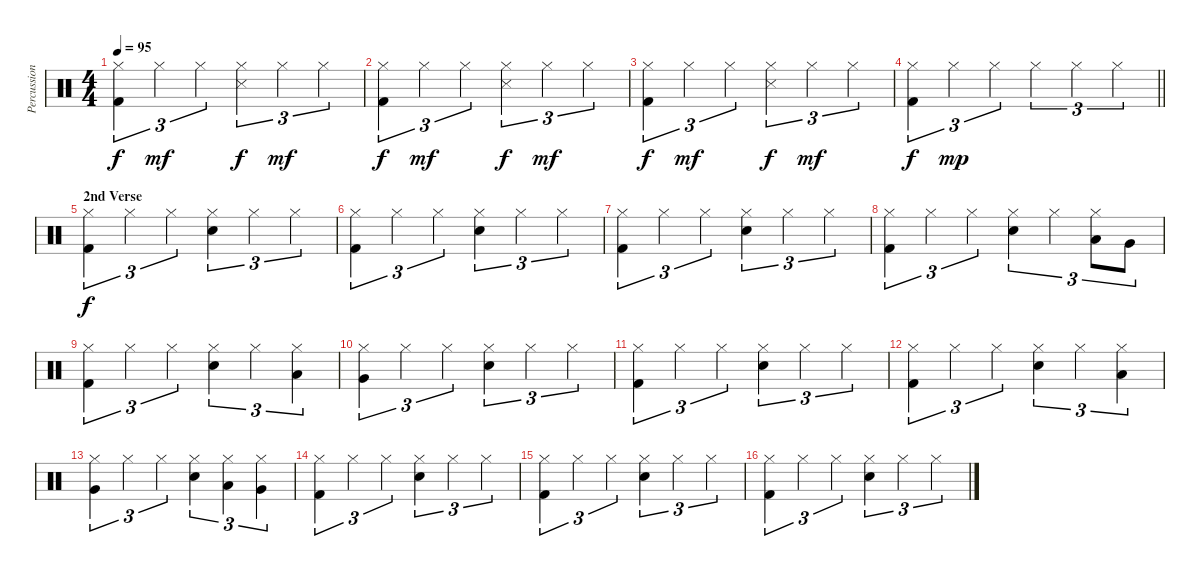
\track ("Percussion" "Percussion") {instrument percussion}
\staff {score}
\articulation defaults
\ts (4 4)
\tempo 95
\clef neutral
\ks c
("Hi-Hat (closed)" "Kick (hit) 2").4{tu (3 2) dy f} "Hi-Hat (closed)".4{tu (3 2) dy mf} "Hi-Hat (closed)".4{tu (3 2)} ("Hi-Hat (closed)" "Snare (side stick) 3").4{tu (3 2) dy f} "Hi-Hat (closed)".4{tu (3 2) dy mf} "Hi-Hat (closed)".4{tu (3 2)} |
("Hi-Hat (closed)" "Kick (hit) 2").4{tu (3 2) dy f} "Hi-Hat (closed)".4{tu (3 2) dy mf} "Hi-Hat (closed)".4{tu (3 2)} ("Hi-Hat (closed)" "Snare (side stick) 3").4{tu (3 2) dy f} "Hi-Hat (closed)".4{tu (3 2) dy mf} "Hi-Hat (closed)".4{tu (3 2)} |
("Hi-Hat (closed)" "Kick (hit) 2").4{tu (3 2) dy f} "Hi-Hat (closed)".4{tu (3 2) dy mf} "Hi-Hat (closed)".4{tu (3 2)} ("Hi-Hat (closed)" "Snare (side stick) 3").4{tu (3 2) dy f} "Hi-Hat (closed)".4{tu (3 2) dy mf} "Hi-Hat (closed)".4{tu (3 2)} |
\barLineRight lightlight
("Hi-Hat (closed)" "Kick (hit) 2").4{tu (3 2) dy f} "Hi-Hat (closed)".4{tu (3 2) dy mp} "Hi-Hat (closed)".4{tu (3 2)} "Hi-Hat (closed)".4{tu (3 2)} "Hi-Hat (closed)".4{tu (3 2)} "Hi-Hat (closed)".4{tu (3 2)} |
\section ("" "2nd Verse")
("Hi-Hat (closed)" "Kick (hit) 2").4{tu (3 2) dy f} "Hi-Hat (closed)".4{tu (3 2)} "Hi-Hat (closed)".4{tu (3 2)} ("Hi-Hat (closed)" "Electric Snare (hit)").4{tu (3 2)} "Hi-Hat (closed)".4{tu (3 2)} "Hi-Hat (closed)".4{tu (3 2)} |
("Hi-Hat (closed)" "Kick (hit) 2").4{tu (3 2)} "Hi-Hat (closed)".4{tu (3 2)} "Hi-Hat (closed)".4{tu (3 2)} ("Hi-Hat (closed)" "Electric Snare (hit)").4{tu (3 2)} "Hi-Hat (closed)".4{tu (3 2)} "Hi-Hat (closed)".4{tu (3 2)} |
("Hi-Hat (closed)" "Kick (hit) 2").4{tu (3 2)} "Hi-Hat (closed)".4{tu (3 2)} "Hi-Hat (closed)".4{tu (3 2)} ("Hi-Hat (closed)" "Electric Snare (hit)").4{tu (3 2)} "Hi-Hat (closed)".4{tu (3 2)} "Hi-Hat (closed)".4{tu (3 2)} |
("Hi-Hat (closed)" "Kick (hit) 2").4{tu (3 2)} "Hi-Hat (closed)".4{tu (3 2)} "Hi-Hat (closed)".4{tu (3 2)} ("Hi-Hat (closed)" "Electric Snare (hit)").4{tu (3 2)} "Hi-Hat (closed)".4{tu (3 2)} ("Hi-Hat (closed)" "Low Tom (hit)").8{tu (3 2)} "Very Low Tom (hit)".8{tu (3 2)} |
("Hi-Hat (closed)" "Kick (hit) 2").4{tu (3 2)} "Hi-Hat (closed)".4{tu (3 2)} "Hi-Hat (closed)".4{tu (3 2)} ("Hi-Hat (closed)" "Electric Snare (hit)").4{tu (3 2)} "Hi-Hat (closed)".4{tu (3 2)} ("Hi-Hat (closed)" "Low Tom (hit)").4{tu (3 2)} |
("Hi-Hat (closed)" "Very Low Tom (hit)").4{tu (3 2)} "Hi-Hat (closed)".4{tu (3 2)} "Hi-Hat (closed)".4{tu (3 2)} ("Hi-Hat (closed)" "Electric Snare (hit)").4{tu (3 2)} "Hi-Hat (closed)".4{tu (3 2)} "Hi-Hat (closed)".4{tu (3 2)} |
("Hi-Hat (closed)" "Kick (hit) 2").4{tu (3 2)} "Hi-Hat (closed)".4{tu (3 2)} "Hi-Hat (closed)".4{tu (3 2)} ("Hi-Hat (closed)" "Electric Snare (hit)").4{tu (3 2)} "Hi-Hat (closed)".4{tu (3 2)} "Hi-Hat (closed)".4{tu (3 2)} |
("Hi-Hat (closed)" "Kick (hit) 2").4{tu (3 2)} "Hi-Hat (closed)".4{tu (3 2)} "Hi-Hat (closed)".4{tu (3 2)} ("Hi-Hat (closed)" "Electric Snare (hit)").4{tu (3 2)} "Hi-Hat (closed)".4{tu (3 2)} ("Hi-Hat (closed)" "Low Tom (hit)").4{tu (3 2)} |
("Hi-Hat (closed)" "Very Low Tom (hit)").4{tu (3 2)} "Hi-Hat (closed)".4{tu (3 2)} "Hi-Hat (closed)".4{tu (3 2)} ("Hi-Hat (closed)" "Electric Snare (hit)").4{tu (3 2)} ("Hi-Hat (closed)" "Low Tom (hit)").4{tu (3 2)} ("Hi-Hat (closed)" "Very Low Tom (hit)").4{tu (3 2)} |
("Hi-Hat (closed)" "Kick (hit) 2").4{tu (3 2)} "Hi-Hat (closed)".4{tu (3 2)} "Hi-Hat (closed)".4{tu (3 2)} ("Hi-Hat (closed)" "Electric Snare (hit)").4{tu (3 2)} "Hi-Hat (closed)".4{tu (3 2)} "Hi-Hat (closed)".4{tu (3 2)} |
("Hi-Hat (closed)" "Kick (hit) 2").4{tu (3 2)} "Hi-Hat (closed)".4{tu (3 2)} "Hi-Hat (closed)".4{tu (3 2)} ("Hi-Hat (closed)" "Electric Snare (hit)").4{tu (3 2)} "Hi-Hat (closed)".4{tu (3 2)} "Hi-Hat (closed)".4{tu (3 2)} |
("Hi-Hat (closed)" "Kick (hit) 2").4{tu (3 2)} "Hi-Hat (closed)".4{tu (3 2)} "Hi-Hat (closed)".4{tu (3 2)} ("Hi-Hat (closed)" "Electric Snare (hit)").4{tu (3 2)} "Hi-Hat (closed)".4{tu (3 2)} "Hi-Hat (closed)".4{tu (3 2)}
